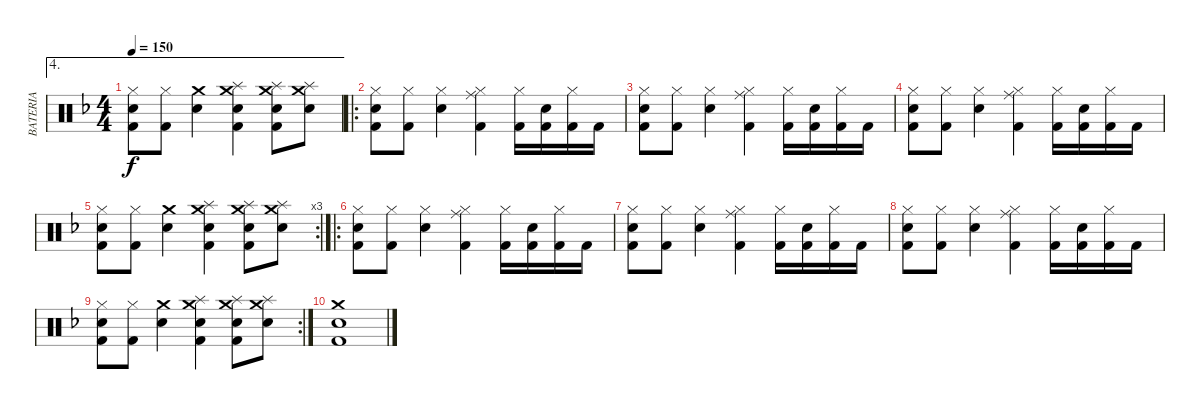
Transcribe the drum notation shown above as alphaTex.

\track ("BATERIA" "BATERIA") {instrument percussion}
\staff {score}
\articulation defaults
\ae 4
\ts (4 4)
\tempo 150
\clef neutral
\ks dminor
("Hi-Hat (closed)" "Snare (hit) 2" "Kick (hit) 2").8{dy f} ("Hi-Hat (closed)" "Kick (hit) 2").8 ("Crash medium (hit)" "Snare (hit) 2").4 ("Splash (hit)" "Crash medium (hit)" "Snare (hit) 2" "Kick (hit) 2").4 ("Splash (hit)" "Crash medium (hit)" "Snare (hit) 2" "Kick (hit) 2").8 ("Splash (hit)" "Crash medium (hit)" "Snare (hit) 2").8 |
\ro
("Hi-Hat (closed)" "Snare (hit) 2" "Kick (hit) 2").8 ("Hi-Hat (closed)" "Kick (hit) 2").8 ("Hi-Hat (closed)" "Snare (hit) 2").4 ("Hi-Hat (closed)" "Ride (middle)" "Kick (hit) 2").4 ("Hi-Hat (closed)" "Kick (hit) 2").16 ("Snare (hit) 2" "Kick (hit) 2").16 ("Hi-Hat (closed)" "Kick (hit) 2").16 "Kick (hit) 2".16 |
("Hi-Hat (closed)" "Snare (hit) 2" "Kick (hit) 2").8 ("Hi-Hat (closed)" "Kick (hit) 2").8 ("Hi-Hat (closed)" "Snare (hit) 2").4 ("Hi-Hat (closed)" "Ride (middle)" "Kick (hit) 2").4 ("Hi-Hat (closed)" "Kick (hit) 2").16 ("Snare (hit) 2" "Kick (hit) 2").16 ("Hi-Hat (closed)" "Kick (hit) 2").16 "Kick (hit) 2".16 |
("Hi-Hat (closed)" "Snare (hit) 2" "Kick (hit) 2").8 ("Hi-Hat (closed)" "Kick (hit) 2").8 ("Hi-Hat (closed)" "Snare (hit) 2").4 ("Hi-Hat (closed)" "Ride (middle)" "Kick (hit) 2").4 ("Hi-Hat (closed)" "Kick (hit) 2").16 ("Snare (hit) 2" "Kick (hit) 2").16 ("Hi-Hat (closed)" "Kick (hit) 2").16 "Kick (hit) 2".16 |
\rc 3
("Hi-Hat (closed)" "Snare (hit) 2" "Kick (hit) 2").8 ("Hi-Hat (closed)" "Kick (hit) 2").8 ("Crash medium (hit)" "Snare (hit) 2").4 ("Splash (hit)" "Crash medium (hit)" "Snare (hit) 2" "Kick (hit) 2").4 ("Splash (hit)" "Crash medium (hit)" "Snare (hit) 2" "Kick (hit) 2").8 ("Splash (hit)" "Crash medium (hit)" "Snare (hit) 2").8 |
\ro
("Hi-Hat (closed)" "Snare (hit) 2" "Kick (hit) 2").8 ("Hi-Hat (closed)" "Kick (hit) 2").8 ("Hi-Hat (closed)" "Snare (hit) 2").4 ("Hi-Hat (closed)" "Ride (middle)" "Kick (hit) 2").4 ("Hi-Hat (closed)" "Kick (hit) 2").16 ("Snare (hit) 2" "Kick (hit) 2").16 ("Hi-Hat (closed)" "Kick (hit) 2").16 "Kick (hit) 2".16 |
("Hi-Hat (closed)" "Snare (hit) 2" "Kick (hit) 2").8 ("Hi-Hat (closed)" "Kick (hit) 2").8 ("Hi-Hat (closed)" "Snare (hit) 2").4 ("Hi-Hat (closed)" "Ride (middle)" "Kick (hit) 2").4 ("Hi-Hat (closed)" "Kick (hit) 2").16 ("Snare (hit) 2" "Kick (hit) 2").16 ("Hi-Hat (closed)" "Kick (hit) 2").16 "Kick (hit) 2".16 |
("Hi-Hat (closed)" "Snare (hit) 2" "Kick (hit) 2").8 ("Hi-Hat (closed)" "Kick (hit) 2").8 ("Hi-Hat (closed)" "Snare (hit) 2").4 ("Hi-Hat (closed)" "Ride (middle)" "Kick (hit) 2").4 ("Hi-Hat (closed)" "Kick (hit) 2").16 ("Snare (hit) 2" "Kick (hit) 2").16 ("Hi-Hat (closed)" "Kick (hit) 2").16 "Kick (hit) 2".16 |
\rc 2
("Hi-Hat (closed)" "Snare (hit) 2" "Kick (hit) 2").8 ("Hi-Hat (closed)" "Kick (hit) 2").8 ("Crash medium (hit)" "Snare (hit) 2").4 ("Splash (hit)" "Crash medium (hit)" "Snare (hit) 2" "Kick (hit) 2").4 ("Splash (hit)" "Crash medium (hit)" "Snare (hit) 2" "Kick (hit) 2").8 ("Splash (hit)" "Crash medium (hit)" "Snare (hit) 2").8 |
("Crash medium (hit)" "Kick (hit) 2" "Snare (hit) 2").1
